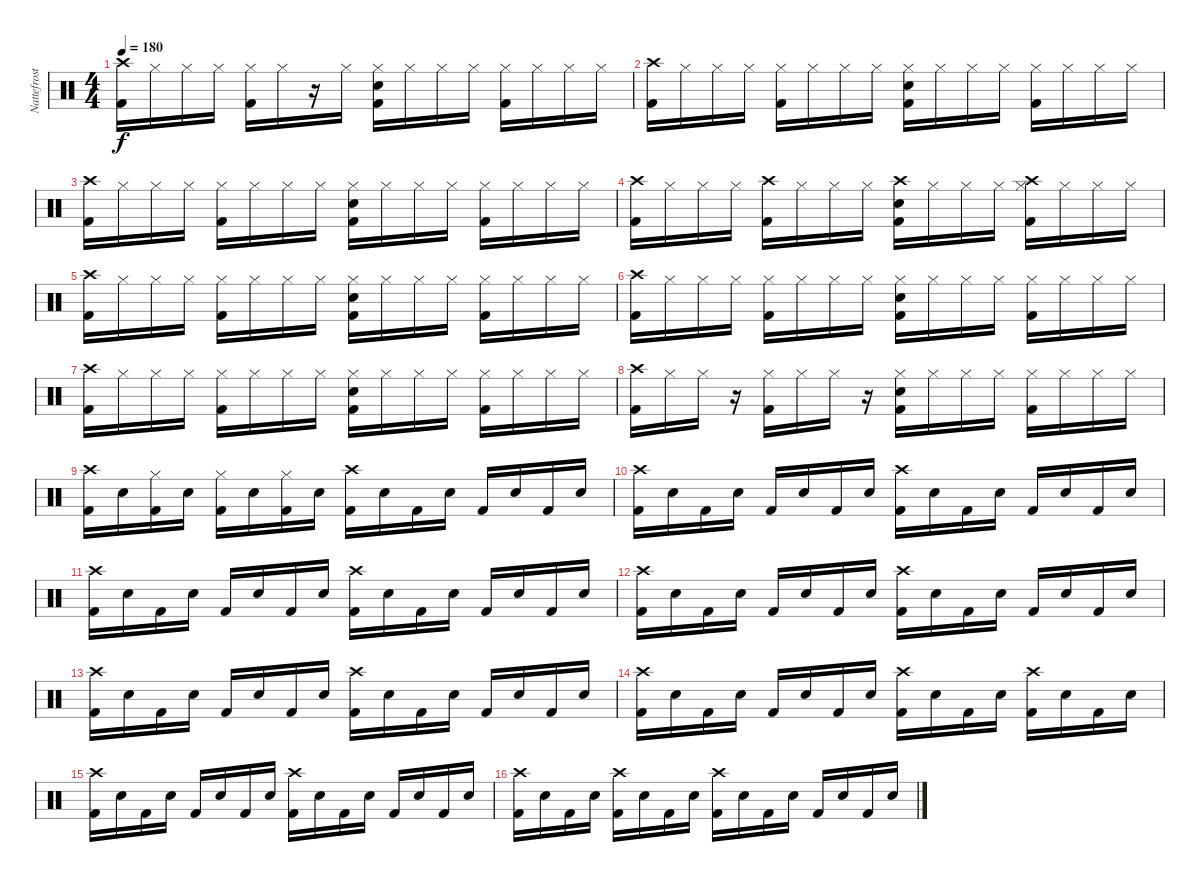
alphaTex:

\track ("Nattefrost" "Nattefrost") {instrument percussion}
\staff {score}
\articulation defaults
\ts (4 4)
\tempo 180
\clef neutral
\ks c
("Crash high (hit)" "Kick (hit) 2").16{dy f} "Hi-Hat (closed)".16 "Hi-Hat (closed)".16 "Hi-Hat (closed)".16 ("Hi-Hat (closed)" "Kick (hit) 2").16 "Hi-Hat (closed)".16 r.16 "Hi-Hat (closed)".16 ("Hi-Hat (closed)" "Electric Snare (hit)" "Kick (hit) 2").16 "Hi-Hat (closed)".16 "Hi-Hat (closed)".16 "Hi-Hat (closed)".16 ("Hi-Hat (closed)" "Kick (hit) 2").16 "Hi-Hat (closed)".16 "Hi-Hat (closed)".16 "Hi-Hat (closed)".16 |
("Crash high (hit)" "Kick (hit) 2").16 "Hi-Hat (closed)".16 "Hi-Hat (closed)".16 "Hi-Hat (closed)".16 ("Hi-Hat (closed)" "Kick (hit) 2").16 "Hi-Hat (closed)".16 "Hi-Hat (closed)".16 "Hi-Hat (closed)".16 ("Hi-Hat (closed)" "Electric Snare (hit)" "Kick (hit) 2").16 "Hi-Hat (closed)".16 "Hi-Hat (closed)".16 "Hi-Hat (closed)".16 ("Hi-Hat (closed)" "Kick (hit) 2").16 "Hi-Hat (closed)".16 "Hi-Hat (closed)".16 "Hi-Hat (closed)".16 |
("Crash high (hit)" "Kick (hit) 2").16 "Hi-Hat (closed)".16 "Hi-Hat (closed)".16 "Hi-Hat (closed)".16 ("Hi-Hat (closed)" "Kick (hit) 2").16 "Hi-Hat (closed)".16 "Hi-Hat (closed)".16 "Hi-Hat (closed)".16 ("Hi-Hat (closed)" "Electric Snare (hit)" "Kick (hit) 2").16 "Hi-Hat (closed)".16 "Hi-Hat (closed)".16 "Hi-Hat (closed)".16 ("Hi-Hat (closed)" "Kick (hit) 2").16 "Hi-Hat (closed)".16 "Hi-Hat (closed)".16 "Hi-Hat (closed)".16 |
("Crash high (hit)" "Kick (hit) 2").16 "Hi-Hat (closed)".16 "Hi-Hat (closed)".16 "Hi-Hat (closed)".16 ("Crash high (hit)" "Kick (hit) 2").16 "Hi-Hat (closed)".16 "Hi-Hat (closed)".16 "Hi-Hat (closed)".16 ("Crash high (hit)" "Electric Snare (hit)" "Kick (hit) 2").16 "Hi-Hat (closed)".16 "Hi-Hat (closed)".16 "Hi-Hat (closed)".16 ("Crash high (hit)" "Hi-Hat (closed)" "Kick (hit) 2").16 "Hi-Hat (closed)".16 "Hi-Hat (closed)".16 "Hi-Hat (closed)".16 |
("Crash high (hit)" "Kick (hit) 2").16 "Hi-Hat (closed)".16 "Hi-Hat (closed)".16 "Hi-Hat (closed)".16 ("Hi-Hat (closed)" "Kick (hit) 2").16 "Hi-Hat (closed)".16 "Hi-Hat (closed)".16 "Hi-Hat (closed)".16 ("Hi-Hat (closed)" "Electric Snare (hit)" "Kick (hit) 2").16 "Hi-Hat (closed)".16 "Hi-Hat (closed)".16 "Hi-Hat (closed)".16 ("Hi-Hat (closed)" "Kick (hit) 2").16 "Hi-Hat (closed)".16 "Hi-Hat (closed)".16 "Hi-Hat (closed)".16 |
("Crash high (hit)" "Kick (hit) 2").16 "Hi-Hat (closed)".16 "Hi-Hat (closed)".16 "Hi-Hat (closed)".16 ("Hi-Hat (closed)" "Kick (hit) 2").16 "Hi-Hat (closed)".16 "Hi-Hat (closed)".16 "Hi-Hat (closed)".16 ("Hi-Hat (closed)" "Electric Snare (hit)" "Kick (hit) 2").16 "Hi-Hat (closed)".16 "Hi-Hat (closed)".16 "Hi-Hat (closed)".16 ("Hi-Hat (closed)" "Kick (hit) 2").16 "Hi-Hat (closed)".16 "Hi-Hat (closed)".16 "Hi-Hat (closed)".16 |
("Crash high (hit)" "Kick (hit) 2").16 "Hi-Hat (closed)".16 "Hi-Hat (closed)".16 "Hi-Hat (closed)".16 ("Hi-Hat (closed)" "Kick (hit) 2").16 "Hi-Hat (closed)".16 "Hi-Hat (closed)".16 "Hi-Hat (closed)".16 ("Hi-Hat (closed)" "Electric Snare (hit)" "Kick (hit) 2").16 "Hi-Hat (closed)".16 "Hi-Hat (closed)".16 "Hi-Hat (closed)".16 ("Hi-Hat (closed)" "Kick (hit) 2").16 "Hi-Hat (closed)".16 "Hi-Hat (closed)".16 "Hi-Hat (closed)".16 |
("Crash high (hit)" "Kick (hit) 2").16 "Hi-Hat (closed)".16 "Hi-Hat (closed)".16 r.16 ("Hi-Hat (closed)" "Kick (hit) 2").16 "Hi-Hat (closed)".16 "Hi-Hat (closed)".16 r.16 ("Hi-Hat (closed)" "Electric Snare (hit)" "Kick (hit) 2").16 "Hi-Hat (closed)".16 "Hi-Hat (closed)".16 "Hi-Hat (closed)".16 ("Hi-Hat (closed)" "Kick (hit) 2").16 "Hi-Hat (closed)".16 "Hi-Hat (closed)".16 "Hi-Hat (closed)".16 |
("Crash high (hit)" "Kick (hit) 2").16 "Electric Snare (hit)".16 ("Hi-Hat (closed)" "Kick (hit) 2").16 "Electric Snare (hit)".16 ("Hi-Hat (closed)" "Kick (hit) 2").16 "Electric Snare (hit)".16 ("Hi-Hat (closed)" "Kick (hit) 2").16 "Electric Snare (hit)".16 ("Crash high (hit)" "Kick (hit) 2").16 "Electric Snare (hit)".16 "Kick (hit) 2".16 "Electric Snare (hit)".16 "Kick (hit) 2".16 "Electric Snare (hit)".16 "Kick (hit) 2".16 "Electric Snare (hit)".16 |
("Crash high (hit)" "Kick (hit) 2").16 "Electric Snare (hit)".16 "Kick (hit) 2".16 "Electric Snare (hit)".16 "Kick (hit) 2".16 "Electric Snare (hit)".16 "Kick (hit) 2".16 "Electric Snare (hit)".16 ("Crash high (hit)" "Kick (hit) 2").16 "Electric Snare (hit)".16 "Kick (hit) 2".16 "Electric Snare (hit)".16 "Kick (hit) 2".16 "Electric Snare (hit)".16 "Kick (hit) 2".16 "Electric Snare (hit)".16 |
("Crash high (hit)" "Kick (hit) 2").16 "Electric Snare (hit)".16 "Kick (hit) 2".16 "Electric Snare (hit)".16 "Kick (hit) 2".16 "Electric Snare (hit)".16 "Kick (hit) 2".16 "Electric Snare (hit)".16 ("Crash high (hit)" "Kick (hit) 2").16 "Electric Snare (hit)".16 "Kick (hit) 2".16 "Electric Snare (hit)".16 "Kick (hit) 2".16 "Electric Snare (hit)".16 "Kick (hit) 2".16 "Electric Snare (hit)".16 |
("Crash high (hit)" "Kick (hit) 2").16 "Electric Snare (hit)".16 "Kick (hit) 2".16 "Electric Snare (hit)".16 "Kick (hit) 2".16 "Electric Snare (hit)".16 "Kick (hit) 2".16 "Electric Snare (hit)".16 ("Crash high (hit)" "Kick (hit) 2").16 "Electric Snare (hit)".16 "Kick (hit) 2".16 "Electric Snare (hit)".16 "Kick (hit) 2".16 "Electric Snare (hit)".16 "Kick (hit) 2".16 "Electric Snare (hit)".16 |
("Crash high (hit)" "Kick (hit) 2").16 "Electric Snare (hit)".16 "Kick (hit) 2".16 "Electric Snare (hit)".16 "Kick (hit) 2".16 "Electric Snare (hit)".16 "Kick (hit) 2".16 "Electric Snare (hit)".16 ("Crash high (hit)" "Kick (hit) 2").16 "Electric Snare (hit)".16 "Kick (hit) 2".16 "Electric Snare (hit)".16 "Kick (hit) 2".16 "Electric Snare (hit)".16 "Kick (hit) 2".16 "Electric Snare (hit)".16 |
("Crash high (hit)" "Kick (hit) 2").16 "Electric Snare (hit)".16 "Kick (hit) 2".16 "Electric Snare (hit)".16 "Kick (hit) 2".16 "Electric Snare (hit)".16 "Kick (hit) 2".16 "Electric Snare (hit)".16 ("Crash high (hit)" "Kick (hit) 2").16 "Electric Snare (hit)".16 "Kick (hit) 2".16 "Electric Snare (hit)".16 ("Crash high (hit)" "Kick (hit) 2").16 "Electric Snare (hit)".16 "Kick (hit) 2".16 "Electric Snare (hit)".16 |
("Crash high (hit)" "Kick (hit) 2").16 "Electric Snare (hit)".16 "Kick (hit) 2".16 "Electric Snare (hit)".16 "Kick (hit) 2".16 "Electric Snare (hit)".16 "Kick (hit) 2".16 "Electric Snare (hit)".16 ("Crash high (hit)" "Kick (hit) 2").16 "Electric Snare (hit)".16 "Kick (hit) 2".16 "Electric Snare (hit)".16 "Kick (hit) 2".16 "Electric Snare (hit)".16 "Kick (hit) 2".16 "Electric Snare (hit)".16 |
("Crash high (hit)" "Kick (hit) 2").16 "Electric Snare (hit)".16 "Kick (hit) 2".16 "Electric Snare (hit)".16 ("Crash high (hit)" "Kick (hit) 2").16 "Electric Snare (hit)".16 "Kick (hit) 2".16 "Electric Snare (hit)".16 ("Crash high (hit)" "Kick (hit) 2").16 "Electric Snare (hit)".16 "Kick (hit) 2".16 "Electric Snare (hit)".16 "Kick (hit) 2".16 "Electric Snare (hit)".16 "Kick (hit) 2".16 "Electric Snare (hit)".16
